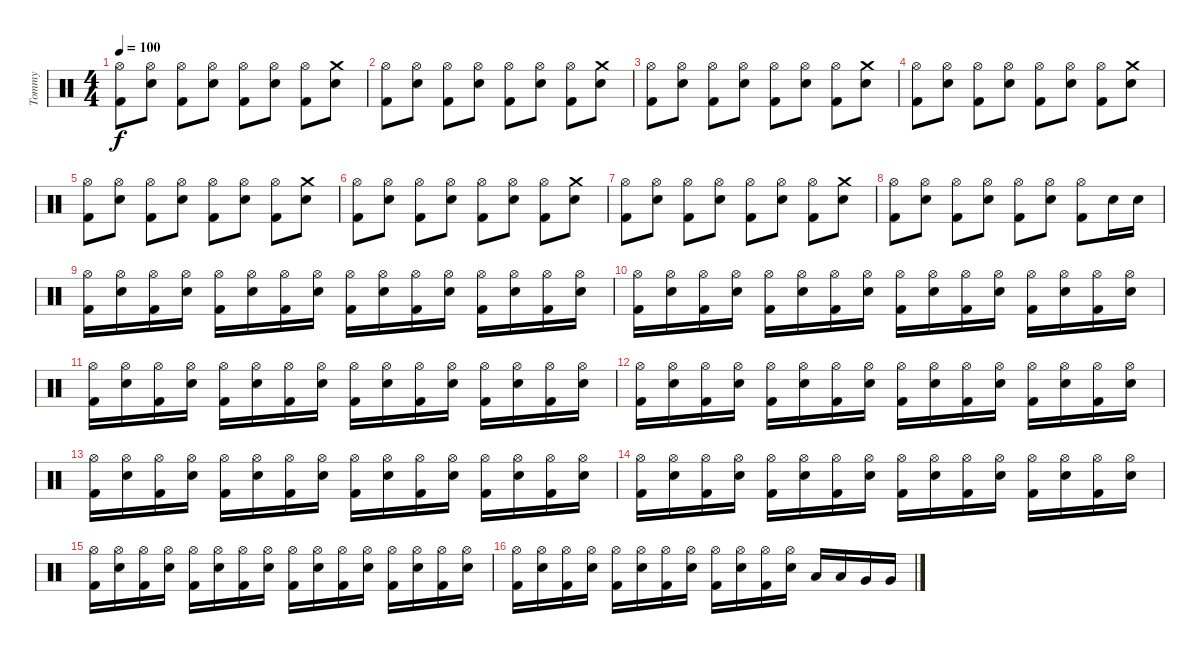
\track ("Tommy" "Tommy") {instrument percussion}
\staff {score}
\articulation defaults
\ts (4 4)
\tempo 100
\clef neutral
\ks c
("Hi-Hat (open)" "Kick (hit) 2").8{dy f} ("Hi-Hat (open)" "Snare (hit) 2").8 ("Hi-Hat (open)" "Kick (hit) 2").8 ("Hi-Hat (open)" "Snare (hit) 2").8 ("Hi-Hat (open)" "Kick (hit) 2").8 ("Hi-Hat (open)" "Snare (hit) 2").8 ("Hi-Hat (open)" "Kick (hit) 2").8 ("Crash medium (hit)" "Snare (hit) 2").8 |
("Hi-Hat (open)" "Kick (hit) 2").8 ("Hi-Hat (open)" "Snare (hit) 2").8 ("Hi-Hat (open)" "Kick (hit) 2").8 ("Hi-Hat (open)" "Snare (hit) 2").8 ("Hi-Hat (open)" "Kick (hit) 2").8 ("Hi-Hat (open)" "Snare (hit) 2").8 ("Hi-Hat (open)" "Kick (hit) 2").8 ("Crash medium (hit)" "Snare (hit) 2").8 |
("Hi-Hat (open)" "Kick (hit) 2").8 ("Hi-Hat (open)" "Snare (hit) 2").8 ("Hi-Hat (open)" "Kick (hit) 2").8 ("Hi-Hat (open)" "Snare (hit) 2").8 ("Hi-Hat (open)" "Kick (hit) 2").8 ("Hi-Hat (open)" "Snare (hit) 2").8 ("Hi-Hat (open)" "Kick (hit) 2").8 ("Crash medium (hit)" "Snare (hit) 2").8 |
("Hi-Hat (open)" "Kick (hit) 2").8 ("Hi-Hat (open)" "Snare (hit) 2").8 ("Hi-Hat (open)" "Kick (hit) 2").8 ("Hi-Hat (open)" "Snare (hit) 2").8 ("Hi-Hat (open)" "Kick (hit) 2").8 ("Hi-Hat (open)" "Snare (hit) 2").8 ("Hi-Hat (open)" "Kick (hit) 2").8 ("Crash medium (hit)" "Snare (hit) 2").8 |
("Hi-Hat (open)" "Kick (hit) 2").8 ("Hi-Hat (open)" "Snare (hit) 2").8 ("Hi-Hat (open)" "Kick (hit) 2").8 ("Hi-Hat (open)" "Snare (hit) 2").8 ("Hi-Hat (open)" "Kick (hit) 2").8 ("Hi-Hat (open)" "Snare (hit) 2").8 ("Hi-Hat (open)" "Kick (hit) 2").8 ("Crash medium (hit)" "Snare (hit) 2").8 |
("Hi-Hat (open)" "Kick (hit) 2").8 ("Hi-Hat (open)" "Snare (hit) 2").8 ("Hi-Hat (open)" "Kick (hit) 2").8 ("Hi-Hat (open)" "Snare (hit) 2").8 ("Hi-Hat (open)" "Kick (hit) 2").8 ("Hi-Hat (open)" "Snare (hit) 2").8 ("Hi-Hat (open)" "Kick (hit) 2").8 ("Crash medium (hit)" "Snare (hit) 2").8 |
("Hi-Hat (open)" "Kick (hit) 2").8 ("Hi-Hat (open)" "Snare (hit) 2").8 ("Hi-Hat (open)" "Kick (hit) 2").8 ("Hi-Hat (open)" "Snare (hit) 2").8 ("Hi-Hat (open)" "Kick (hit) 2").8 ("Hi-Hat (open)" "Snare (hit) 2").8 ("Hi-Hat (open)" "Kick (hit) 2").8 ("Crash medium (hit)" "Snare (hit) 2").8 |
("Hi-Hat (open)" "Kick (hit) 2").8 ("Hi-Hat (open)" "Snare (hit) 2").8 ("Hi-Hat (open)" "Kick (hit) 2").8 ("Hi-Hat (open)" "Snare (hit) 2").8 ("Hi-Hat (open)" "Kick (hit) 2").8 ("Hi-Hat (open)" "Snare (hit) 2").8 ("Hi-Hat (open)" "Kick (hit) 2").8 "Snare (hit) 2".16 "Snare (hit) 2".16 |
("Hi-Hat (open)" "Kick (hit) 2").16 ("Hi-Hat (open)" "Snare (hit) 2").16 ("Hi-Hat (open)" "Kick (hit) 2").16 ("Hi-Hat (open)" "Snare (hit) 2").16 ("Hi-Hat (open)" "Kick (hit) 2").16 ("Hi-Hat (open)" "Snare (hit) 2").16 ("Hi-Hat (open)" "Kick (hit) 2").16 ("Hi-Hat (open)" "Snare (hit) 2").16 ("Hi-Hat (open)" "Kick (hit) 2").16 ("Hi-Hat (open)" "Snare (hit) 2").16 ("Hi-Hat (open)" "Kick (hit) 2").16 ("Hi-Hat (open)" "Snare (hit) 2").16 ("Hi-Hat (open)" "Kick (hit) 2").16 ("Hi-Hat (open)" "Snare (hit) 2").16 ("Hi-Hat (open)" "Kick (hit) 2").16 ("Hi-Hat (open)" "Snare (hit) 2").16 |
("Hi-Hat (open)" "Kick (hit) 2").16 ("Hi-Hat (open)" "Snare (hit) 2").16 ("Hi-Hat (open)" "Kick (hit) 2").16 ("Hi-Hat (open)" "Snare (hit) 2").16 ("Hi-Hat (open)" "Kick (hit) 2").16 ("Hi-Hat (open)" "Snare (hit) 2").16 ("Hi-Hat (open)" "Kick (hit) 2").16 ("Hi-Hat (open)" "Snare (hit) 2").16 ("Hi-Hat (open)" "Kick (hit) 2").16 ("Hi-Hat (open)" "Snare (hit) 2").16 ("Hi-Hat (open)" "Kick (hit) 2").16 ("Hi-Hat (open)" "Snare (hit) 2").16 ("Hi-Hat (open)" "Kick (hit) 2").16 ("Hi-Hat (open)" "Snare (hit) 2").16 ("Hi-Hat (open)" "Kick (hit) 2").16 ("Hi-Hat (open)" "Snare (hit) 2").16 |
("Hi-Hat (open)" "Kick (hit) 2").16 ("Hi-Hat (open)" "Snare (hit) 2").16 ("Hi-Hat (open)" "Kick (hit) 2").16 ("Hi-Hat (open)" "Snare (hit) 2").16 ("Hi-Hat (open)" "Kick (hit) 2").16 ("Hi-Hat (open)" "Snare (hit) 2").16 ("Hi-Hat (open)" "Kick (hit) 2").16 ("Hi-Hat (open)" "Snare (hit) 2").16 ("Hi-Hat (open)" "Kick (hit) 2").16 ("Hi-Hat (open)" "Snare (hit) 2").16 ("Hi-Hat (open)" "Kick (hit) 2").16 ("Hi-Hat (open)" "Snare (hit) 2").16 ("Hi-Hat (open)" "Kick (hit) 2").16 ("Hi-Hat (open)" "Snare (hit) 2").16 ("Hi-Hat (open)" "Kick (hit) 2").16 ("Hi-Hat (open)" "Snare (hit) 2").16 |
("Hi-Hat (open)" "Kick (hit) 2").16 ("Hi-Hat (open)" "Snare (hit) 2").16 ("Hi-Hat (open)" "Kick (hit) 2").16 ("Hi-Hat (open)" "Snare (hit) 2").16 ("Hi-Hat (open)" "Kick (hit) 2").16 ("Hi-Hat (open)" "Snare (hit) 2").16 ("Hi-Hat (open)" "Kick (hit) 2").16 ("Hi-Hat (open)" "Snare (hit) 2").16 ("Hi-Hat (open)" "Kick (hit) 2").16 ("Hi-Hat (open)" "Snare (hit) 2").16 ("Hi-Hat (open)" "Kick (hit) 2").16 ("Hi-Hat (open)" "Snare (hit) 2").16 ("Hi-Hat (open)" "Kick (hit) 2").16 ("Hi-Hat (open)" "Snare (hit) 2").16 ("Hi-Hat (open)" "Kick (hit) 2").16 ("Hi-Hat (open)" "Snare (hit) 2").16 |
("Hi-Hat (open)" "Kick (hit) 2").16 ("Hi-Hat (open)" "Snare (hit) 2").16 ("Hi-Hat (open)" "Kick (hit) 2").16 ("Hi-Hat (open)" "Snare (hit) 2").16 ("Hi-Hat (open)" "Kick (hit) 2").16 ("Hi-Hat (open)" "Snare (hit) 2").16 ("Hi-Hat (open)" "Kick (hit) 2").16 ("Hi-Hat (open)" "Snare (hit) 2").16 ("Hi-Hat (open)" "Kick (hit) 2").16 ("Hi-Hat (open)" "Snare (hit) 2").16 ("Hi-Hat (open)" "Kick (hit) 2").16 ("Hi-Hat (open)" "Snare (hit) 2").16 ("Hi-Hat (open)" "Kick (hit) 2").16 ("Hi-Hat (open)" "Snare (hit) 2").16 ("Hi-Hat (open)" "Kick (hit) 2").16 ("Hi-Hat (open)" "Snare (hit) 2").16 |
("Hi-Hat (open)" "Kick (hit) 2").16 ("Hi-Hat (open)" "Snare (hit) 2").16 ("Hi-Hat (open)" "Kick (hit) 2").16 ("Hi-Hat (open)" "Snare (hit) 2").16 ("Hi-Hat (open)" "Kick (hit) 2").16 ("Hi-Hat (open)" "Snare (hit) 2").16 ("Hi-Hat (open)" "Kick (hit) 2").16 ("Hi-Hat (open)" "Snare (hit) 2").16 ("Hi-Hat (open)" "Kick (hit) 2").16 ("Hi-Hat (open)" "Snare (hit) 2").16 ("Hi-Hat (open)" "Kick (hit) 2").16 ("Hi-Hat (open)" "Snare (hit) 2").16 ("Hi-Hat (open)" "Kick (hit) 2").16 ("Hi-Hat (open)" "Snare (hit) 2").16 ("Hi-Hat (open)" "Kick (hit) 2").16 ("Hi-Hat (open)" "Snare (hit) 2").16 |
("Hi-Hat (open)" "Kick (hit) 2").16 ("Hi-Hat (open)" "Snare (hit) 2").16 ("Hi-Hat (open)" "Kick (hit) 2").16 ("Hi-Hat (open)" "Snare (hit) 2").16 ("Hi-Hat (open)" "Kick (hit) 2").16 ("Hi-Hat (open)" "Snare (hit) 2").16 ("Hi-Hat (open)" "Kick (hit) 2").16 ("Hi-Hat (open)" "Snare (hit) 2").16 ("Hi-Hat (open)" "Kick (hit) 2").16 ("Hi-Hat (open)" "Snare (hit) 2").16 ("Hi-Hat (open)" "Kick (hit) 2").16 ("Hi-Hat (open)" "Snare (hit) 2").16 ("Hi-Hat (open)" "Kick (hit) 2").16 ("Hi-Hat (open)" "Snare (hit) 2").16 ("Hi-Hat (open)" "Kick (hit) 2").16 ("Hi-Hat (open)" "Snare (hit) 2").16 |
("Hi-Hat (open)" "Kick (hit) 2").16 ("Hi-Hat (open)" "Snare (hit) 2").16 ("Hi-Hat (open)" "Kick (hit) 2").16 ("Hi-Hat (open)" "Snare (hit) 2").16 ("Hi-Hat (open)" "Kick (hit) 2").16 ("Hi-Hat (open)" "Snare (hit) 2").16 ("Hi-Hat (open)" "Kick (hit) 2").16 ("Hi-Hat (open)" "Snare (hit) 2").16 ("Hi-Hat (open)" "Kick (hit) 2").16 ("Hi-Hat (open)" "Snare (hit) 2").16 ("Hi-Hat (open)" "Kick (hit) 2").16 ("Hi-Hat (open)" "Snare (hit) 2").16 "Low Tom (hit)".16 "Low Tom (hit)".16 "Very Low Tom (hit)".16 "Very Low Tom (hit)".16
